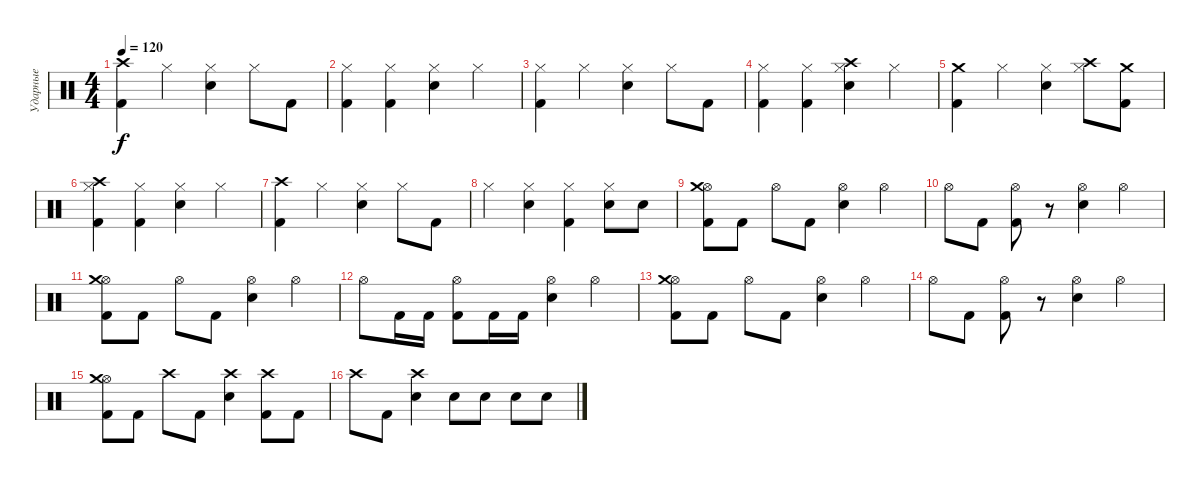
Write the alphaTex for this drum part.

\track ("Ударные" "Ударные") {instrument percussion}
\staff {score}
\articulation defaults
\ts (4 4)
\tempo 120
\clef neutral
\ks c
("Kick (hit) 2" "Crash high (hit)").4{dy f} "Hi-Hat (closed)".4 ("Electric Snare (hit)" "Hi-Hat (closed)").4 "Hi-Hat (closed)".8 "Kick (hit) 2".8 |
("Kick (hit) 2" "Hi-Hat (closed)").4 ("Kick (hit) 2" "Hi-Hat (closed)").4 ("Electric Snare (hit)" "Hi-Hat (closed)").4 "Hi-Hat (closed)".4 |
("Kick (hit) 2" "Hi-Hat (closed)").4 "Hi-Hat (closed)".4 ("Electric Snare (hit)" "Hi-Hat (closed)").4 "Hi-Hat (closed)".8 "Kick (hit) 2".8 |
("Kick (hit) 2" "Hi-Hat (closed)").4 ("Kick (hit) 2" "Hi-Hat (closed)").4 ("Electric Snare (hit)" "Hi-Hat (closed)" "Crash high (hit)").4 "Hi-Hat (closed)".4 |
("Kick (hit) 2" "Crash medium (hit)").4 "Hi-Hat (closed)".4 ("Electric Snare (hit)" "Hi-Hat (closed)").4 ("Hi-Hat (closed)" "Crash high (hit)").8 ("Kick (hit) 2" "Crash medium (hit)").8 |
("Kick (hit) 2" "Hi-Hat (closed)" "Crash high (hit)").4 ("Kick (hit) 2" "Hi-Hat (closed)").4 ("Electric Snare (hit)" "Hi-Hat (closed)").4 "Hi-Hat (closed)".4 |
("Kick (hit) 2" "Crash high (hit)").4 "Hi-Hat (closed)".4 ("Electric Snare (hit)" "Hi-Hat (closed)").4 "Hi-Hat (closed)".8 "Kick (hit) 2".8 |
"Hi-Hat (closed)".4 ("Electric Snare (hit)" "Hi-Hat (closed)").4 ("Kick (hit) 2" "Hi-Hat (closed)").4 ("Electric Snare (hit)" "Hi-Hat (closed)").8 "Electric Snare (hit)".8 |
("Kick (hit) 2" "Hi-Hat (open)" "Crash medium (hit)").8 "Kick (hit) 2".8 "Hi-Hat (open)".8 "Kick (hit) 2".8 ("Electric Snare (hit)" "Hi-Hat (open)").4 "Hi-Hat (open)".4 |
"Hi-Hat (open)".8 "Kick (hit) 2".8 ("Kick (hit) 2" "Hi-Hat (open)").8 r.8 ("Electric Snare (hit)" "Hi-Hat (open)").4 "Hi-Hat (open)".4 |
("Kick (hit) 2" "Hi-Hat (open)" "Crash medium (hit)").8 "Kick (hit) 2".8 "Hi-Hat (open)".8 "Kick (hit) 2".8 ("Electric Snare (hit)" "Hi-Hat (open)").4 "Hi-Hat (open)".4 |
"Hi-Hat (open)".8 "Kick (hit) 2".16 "Kick (hit) 2".16 ("Kick (hit) 2" "Hi-Hat (open)").8 "Kick (hit) 2".16 "Kick (hit) 2".16 ("Electric Snare (hit)" "Hi-Hat (open)").4 "Hi-Hat (open)".4 |
("Kick (hit) 2" "Hi-Hat (open)" "Crash medium (hit)").8 "Kick (hit) 2".8 "Hi-Hat (open)".8 "Kick (hit) 2".8 ("Electric Snare (hit)" "Hi-Hat (open)").4 "Hi-Hat (open)".4 |
"Hi-Hat (open)".8 "Kick (hit) 2".8 ("Kick (hit) 2" "Hi-Hat (open)").8 r.8 ("Electric Snare (hit)" "Hi-Hat (open)").4 "Hi-Hat (open)".4 |
("Kick (hit) 2" "Hi-Hat (open)" "Crash medium (hit)").8 "Kick (hit) 2".8 "Crash high (hit)".8 "Kick (hit) 2".8 ("Electric Snare (hit)" "Crash high (hit)").4 ("Kick (hit) 2" "Crash high (hit)").8 "Kick (hit) 2".8 |
"Crash high (hit)".8 "Kick (hit) 2".8 ("Electric Snare (hit)" "Crash high (hit)").4 "Electric Snare (hit)".8 "Electric Snare (hit)".8 "Electric Snare (hit)".8 "Electric Snare (hit)".8
